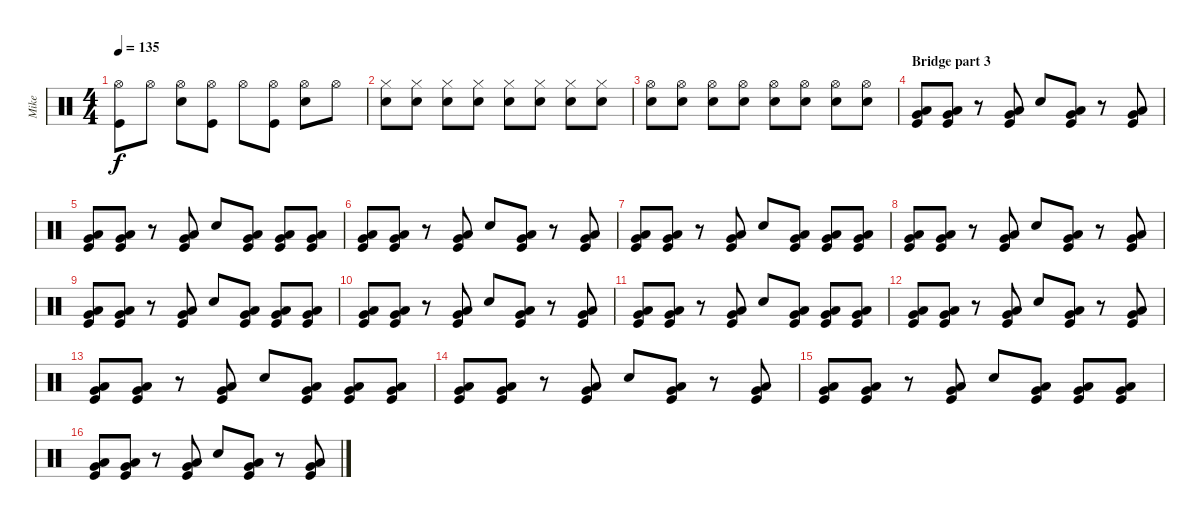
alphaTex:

\track ("Mike" "Mike") {instrument percussion}
\staff {score}
\articulation defaults
\ts (4 4)
\tempo 135
\clef neutral
\ks c
("Hi-Hat (open)" "Kick (hit)").8{dy f} "Hi-Hat (open)".8 ("Hi-Hat (open)" "Electric Snare (hit)").8 ("Hi-Hat (open)" "Kick (hit)").8 "Hi-Hat (open)".8 ("Hi-Hat (open)" "Kick (hit)").8 ("Hi-Hat (open)" "Electric Snare (hit)").8 "Hi-Hat (open)".8 |
("Hi-Hat (closed)" "Electric Snare (hit)").8{volume 4} ("Hi-Hat (closed)" "Electric Snare (hit)").8{volume 13} ("Hi-Hat (closed)" "Electric Snare (hit)").8 ("Hi-Hat (closed)" "Electric Snare (hit)").8 ("Hi-Hat (closed)" "Electric Snare (hit)").8 ("Hi-Hat (closed)" "Electric Snare (hit)").8 ("Hi-Hat (closed)" "Electric Snare (hit)").8 ("Hi-Hat (closed)" "Electric Snare (hit)").8 |
("Hi-Hat (open)" "Electric Snare (hit)").8 ("Hi-Hat (open)" "Electric Snare (hit)").8 ("Hi-Hat (open)" "Electric Snare (hit)").8 ("Hi-Hat (open)" "Electric Snare (hit)").8 ("Hi-Hat (open)" "Electric Snare (hit)").8 ("Hi-Hat (open)" "Electric Snare (hit)").8 ("Hi-Hat (open)" "Electric Snare (hit)").8 ("Hi-Hat (open)" "Electric Snare (hit)").8 |
\section ("" "Bridge part 3")
("Very Low Tom (hit)" "Low Tom (hit)" "Kick (hit)").8{volume 13} ("Very Low Tom (hit)" "Low Tom (hit)" "Kick (hit)").8 r.8 ("Very Low Tom (hit)" "Low Tom (hit)" "Kick (hit)").8 "Electric Snare (hit)".8 ("Very Low Tom (hit)" "Low Tom (hit)" "Kick (hit)").8 r.8 ("Very Low Tom (hit)" "Low Tom (hit)" "Kick (hit)").8 |
("Very Low Tom (hit)" "Low Tom (hit)" "Kick (hit)").8 ("Very Low Tom (hit)" "Low Tom (hit)" "Kick (hit)").8 r.8 ("Very Low Tom (hit)" "Low Tom (hit)" "Kick (hit)").8 "Electric Snare (hit)".8 ("Very Low Tom (hit)" "Low Tom (hit)" "Kick (hit)").8 ("Very Low Tom (hit)" "Low Tom (hit)" "Kick (hit)").8 ("Very Low Tom (hit)" "Low Tom (hit)" "Kick (hit)").8 |
("Very Low Tom (hit)" "Low Tom (hit)" "Kick (hit)").8 ("Very Low Tom (hit)" "Low Tom (hit)" "Kick (hit)").8 r.8 ("Very Low Tom (hit)" "Low Tom (hit)" "Kick (hit)").8 "Electric Snare (hit)".8 ("Very Low Tom (hit)" "Low Tom (hit)" "Kick (hit)").8 r.8 ("Very Low Tom (hit)" "Low Tom (hit)" "Kick (hit)").8 |
("Very Low Tom (hit)" "Low Tom (hit)" "Kick (hit)").8 ("Very Low Tom (hit)" "Low Tom (hit)" "Kick (hit)").8 r.8 ("Very Low Tom (hit)" "Low Tom (hit)" "Kick (hit)").8 "Electric Snare (hit)".8 ("Very Low Tom (hit)" "Low Tom (hit)" "Kick (hit)").8 ("Very Low Tom (hit)" "Low Tom (hit)" "Kick (hit)").8 ("Very Low Tom (hit)" "Low Tom (hit)" "Kick (hit)").8 |
("Very Low Tom (hit)" "Low Tom (hit)" "Kick (hit)").8 ("Very Low Tom (hit)" "Low Tom (hit)" "Kick (hit)").8 r.8 ("Very Low Tom (hit)" "Low Tom (hit)" "Kick (hit)").8 "Electric Snare (hit)".8 ("Very Low Tom (hit)" "Low Tom (hit)" "Kick (hit)").8 r.8 ("Very Low Tom (hit)" "Low Tom (hit)" "Kick (hit)").8 |
("Very Low Tom (hit)" "Low Tom (hit)" "Kick (hit)").8 ("Very Low Tom (hit)" "Low Tom (hit)" "Kick (hit)").8 r.8 ("Very Low Tom (hit)" "Low Tom (hit)" "Kick (hit)").8 "Electric Snare (hit)".8 ("Very Low Tom (hit)" "Low Tom (hit)" "Kick (hit)").8 ("Very Low Tom (hit)" "Low Tom (hit)" "Kick (hit)").8 ("Very Low Tom (hit)" "Low Tom (hit)" "Kick (hit)").8 |
("Very Low Tom (hit)" "Low Tom (hit)" "Kick (hit)").8 ("Very Low Tom (hit)" "Low Tom (hit)" "Kick (hit)").8 r.8 ("Very Low Tom (hit)" "Low Tom (hit)" "Kick (hit)").8 "Electric Snare (hit)".8 ("Very Low Tom (hit)" "Low Tom (hit)" "Kick (hit)").8 r.8 ("Very Low Tom (hit)" "Low Tom (hit)" "Kick (hit)").8 |
("Very Low Tom (hit)" "Low Tom (hit)" "Kick (hit)").8 ("Very Low Tom (hit)" "Low Tom (hit)" "Kick (hit)").8 r.8 ("Very Low Tom (hit)" "Low Tom (hit)" "Kick (hit)").8 "Electric Snare (hit)".8 ("Very Low Tom (hit)" "Low Tom (hit)" "Kick (hit)").8 ("Very Low Tom (hit)" "Low Tom (hit)" "Kick (hit)").8 ("Very Low Tom (hit)" "Low Tom (hit)" "Kick (hit)").8 |
("Very Low Tom (hit)" "Low Tom (hit)" "Kick (hit)").8 ("Very Low Tom (hit)" "Low Tom (hit)" "Kick (hit)").8 r.8 ("Very Low Tom (hit)" "Low Tom (hit)" "Kick (hit)").8 "Electric Snare (hit)".8 ("Very Low Tom (hit)" "Low Tom (hit)" "Kick (hit)").8 r.8 ("Very Low Tom (hit)" "Low Tom (hit)" "Kick (hit)").8 |
("Very Low Tom (hit)" "Low Tom (hit)" "Kick (hit)").8 ("Very Low Tom (hit)" "Low Tom (hit)" "Kick (hit)").8 r.8 ("Very Low Tom (hit)" "Low Tom (hit)" "Kick (hit)").8 "Electric Snare (hit)".8 ("Very Low Tom (hit)" "Low Tom (hit)" "Kick (hit)").8 ("Very Low Tom (hit)" "Low Tom (hit)" "Kick (hit)").8 ("Very Low Tom (hit)" "Low Tom (hit)" "Kick (hit)").8 |
("Very Low Tom (hit)" "Low Tom (hit)" "Kick (hit)").8 ("Very Low Tom (hit)" "Low Tom (hit)" "Kick (hit)").8 r.8 ("Very Low Tom (hit)" "Low Tom (hit)" "Kick (hit)").8 "Electric Snare (hit)".8 ("Very Low Tom (hit)" "Low Tom (hit)" "Kick (hit)").8 r.8 ("Very Low Tom (hit)" "Low Tom (hit)" "Kick (hit)").8 |
("Very Low Tom (hit)" "Low Tom (hit)" "Kick (hit)").8 ("Very Low Tom (hit)" "Low Tom (hit)" "Kick (hit)").8 r.8 ("Very Low Tom (hit)" "Low Tom (hit)" "Kick (hit)").8 "Electric Snare (hit)".8 ("Very Low Tom (hit)" "Low Tom (hit)" "Kick (hit)").8 ("Very Low Tom (hit)" "Low Tom (hit)" "Kick (hit)").8 ("Very Low Tom (hit)" "Low Tom (hit)" "Kick (hit)").8 |
("Very Low Tom (hit)" "Low Tom (hit)" "Kick (hit)").8 ("Very Low Tom (hit)" "Low Tom (hit)" "Kick (hit)").8 r.8 ("Very Low Tom (hit)" "Low Tom (hit)" "Kick (hit)").8 "Electric Snare (hit)".8 ("Very Low Tom (hit)" "Low Tom (hit)" "Kick (hit)").8 r.8 ("Very Low Tom (hit)" "Low Tom (hit)" "Kick (hit)").8
